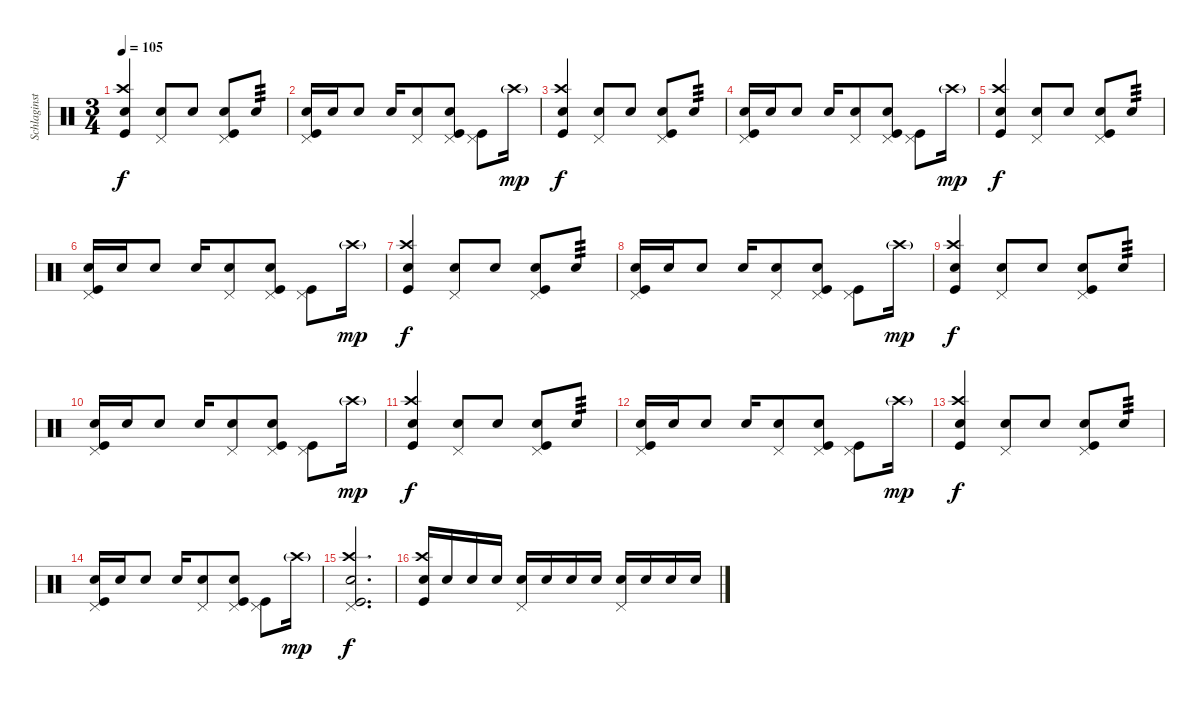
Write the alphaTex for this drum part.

\track ("Schlaginstrumente - Auswahl" "Schlaginst") {instrument percussion}
\staff {score}
\articulation defaults
\ts (3 4)
\tempo 105
\clef neutral
\ks c
("Snare (hit) 2" "Crash high (hit)" "Kick (hit)").4{dy f} ("Snare (hit) 2" "Pedal Hi-Hat (hit)").8 "Snare (hit) 2".8 ("Snare (hit) 2" "Pedal Hi-Hat (hit)" "Kick (hit)").8 "Snare (hit) 2".8{tp 3} |
("Pedal Hi-Hat (hit)" "Kick (hit)" "Snare (hit) 2").16 "Snare (hit) 2".16 "Snare (hit) 2".8 "Snare (hit) 2".16 ("Pedal Hi-Hat (hit)" "Snare (hit) 2").8 ("Snare (hit) 2" "Pedal Hi-Hat (hit)" "Kick (hit)").8 ("Pedal Hi-Hat (hit)" "Kick (hit)").8 "Crash high (hit)"{g}.16{dy mp} |
("Snare (hit) 2" "Crash high (hit)" "Kick (hit)").4{dy f} ("Snare (hit) 2" "Pedal Hi-Hat (hit)").8 "Snare (hit) 2".8 ("Snare (hit) 2" "Pedal Hi-Hat (hit)" "Kick (hit)").8 "Snare (hit) 2".8{tp 3} |
("Pedal Hi-Hat (hit)" "Kick (hit)" "Snare (hit) 2").16 "Snare (hit) 2".16 "Snare (hit) 2".8 "Snare (hit) 2".16 ("Pedal Hi-Hat (hit)" "Snare (hit) 2").8 ("Snare (hit) 2" "Pedal Hi-Hat (hit)" "Kick (hit)").8 ("Pedal Hi-Hat (hit)" "Kick (hit)").8 "Crash high (hit)"{g}.16{dy mp} |
("Snare (hit) 2" "Crash high (hit)" "Kick (hit)").4{dy f} ("Snare (hit) 2" "Pedal Hi-Hat (hit)").8 "Snare (hit) 2".8 ("Snare (hit) 2" "Pedal Hi-Hat (hit)" "Kick (hit)").8 "Snare (hit) 2".8{tp 3} |
("Pedal Hi-Hat (hit)" "Kick (hit)" "Snare (hit) 2").16 "Snare (hit) 2".16 "Snare (hit) 2".8 "Snare (hit) 2".16 ("Pedal Hi-Hat (hit)" "Snare (hit) 2").8 ("Snare (hit) 2" "Pedal Hi-Hat (hit)" "Kick (hit)").8 ("Pedal Hi-Hat (hit)" "Kick (hit)").8 "Crash high (hit)"{g}.16{dy mp} |
("Snare (hit) 2" "Crash high (hit)" "Kick (hit)").4{dy f} ("Snare (hit) 2" "Pedal Hi-Hat (hit)").8 "Snare (hit) 2".8 ("Snare (hit) 2" "Pedal Hi-Hat (hit)" "Kick (hit)").8 "Snare (hit) 2".8{tp 3} |
("Pedal Hi-Hat (hit)" "Kick (hit)" "Snare (hit) 2").16 "Snare (hit) 2".16 "Snare (hit) 2".8 "Snare (hit) 2".16 ("Pedal Hi-Hat (hit)" "Snare (hit) 2").8 ("Snare (hit) 2" "Pedal Hi-Hat (hit)" "Kick (hit)").8 ("Pedal Hi-Hat (hit)" "Kick (hit)").8 "Crash high (hit)"{g}.16{dy mp} |
("Snare (hit) 2" "Crash high (hit)" "Kick (hit)").4{dy f} ("Snare (hit) 2" "Pedal Hi-Hat (hit)").8 "Snare (hit) 2".8 ("Snare (hit) 2" "Pedal Hi-Hat (hit)" "Kick (hit)").8 "Snare (hit) 2".8{tp 3} |
("Pedal Hi-Hat (hit)" "Kick (hit)" "Snare (hit) 2").16 "Snare (hit) 2".16 "Snare (hit) 2".8 "Snare (hit) 2".16 ("Pedal Hi-Hat (hit)" "Snare (hit) 2").8 ("Snare (hit) 2" "Pedal Hi-Hat (hit)" "Kick (hit)").8 ("Pedal Hi-Hat (hit)" "Kick (hit)").8 "Crash high (hit)"{g}.16{dy mp} |
("Snare (hit) 2" "Crash high (hit)" "Kick (hit)").4{dy f} ("Snare (hit) 2" "Pedal Hi-Hat (hit)").8 "Snare (hit) 2".8 ("Snare (hit) 2" "Pedal Hi-Hat (hit)" "Kick (hit)").8 "Snare (hit) 2".8{tp 3} |
("Pedal Hi-Hat (hit)" "Kick (hit)" "Snare (hit) 2").16 "Snare (hit) 2".16 "Snare (hit) 2".8 "Snare (hit) 2".16 ("Pedal Hi-Hat (hit)" "Snare (hit) 2").8 ("Snare (hit) 2" "Pedal Hi-Hat (hit)" "Kick (hit)").8 ("Pedal Hi-Hat (hit)" "Kick (hit)").8 "Crash high (hit)"{g}.16{dy mp} |
("Snare (hit) 2" "Crash high (hit)" "Kick (hit)").4{dy f} ("Snare (hit) 2" "Pedal Hi-Hat (hit)").8 "Snare (hit) 2".8 ("Snare (hit) 2" "Pedal Hi-Hat (hit)" "Kick (hit)").8 "Snare (hit) 2".8{tp 3} |
("Pedal Hi-Hat (hit)" "Kick (hit)" "Snare (hit) 2").16 "Snare (hit) 2".16 "Snare (hit) 2".8 "Snare (hit) 2".16 ("Pedal Hi-Hat (hit)" "Snare (hit) 2").8 ("Snare (hit) 2" "Pedal Hi-Hat (hit)" "Kick (hit)").8 ("Pedal Hi-Hat (hit)" "Kick (hit)").8 "Crash high (hit)"{g}.16{dy mp} |
("Snare (hit) 2" "Crash high (hit)" "Pedal Hi-Hat (hit)" "Kick (hit)").2{d dy f} |
("Snare (hit) 2" "Crash high (hit)" "Kick (hit)").16 "Snare (hit) 2".16 "Snare (hit) 2".16 "Snare (hit) 2".16 ("Snare (hit) 2" "Pedal Hi-Hat (hit)").16 "Snare (hit) 2".16 "Snare (hit) 2".16 "Snare (hit) 2".16 ("Snare (hit) 2" "Pedal Hi-Hat (hit)").16 "Snare (hit) 2".16 "Snare (hit) 2".16 "Snare (hit) 2".16
